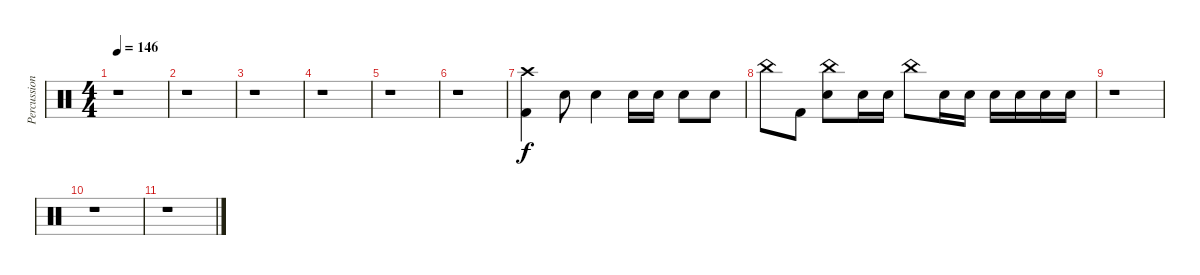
\track ("Percussion" "Percussion") {instrument percussion}
\staff {score}
\articulation defaults
\ts (4 4)
\tempo 146
\clef neutral
\ks c
r.1{dy f} |
r.1 |
r.1 |
r.1 |
r.1 |
r.1 |
("Crash high (hit)" "Kick (hit) 2").4 "Snare (hit) 2".8 "Snare (hit) 2".4 "Snare (hit) 2".16 "Snare (hit) 2".16 "Snare (hit) 2".8 "Snare (hit) 2".8 |
"China (hit)".8 "Kick (hit) 2".8 ("China (hit)" "Snare (hit) 2").8 "Snare (hit) 2".16 "Snare (hit) 2".16 "China (hit)".8 "Snare (hit) 2".16 "Snare (hit) 2".16 "Snare (hit) 2".16 "Snare (hit) 2".16 "Snare (hit) 2".16 "Snare (hit) 2".16 |
r.1 |
r.1 |
r.1
